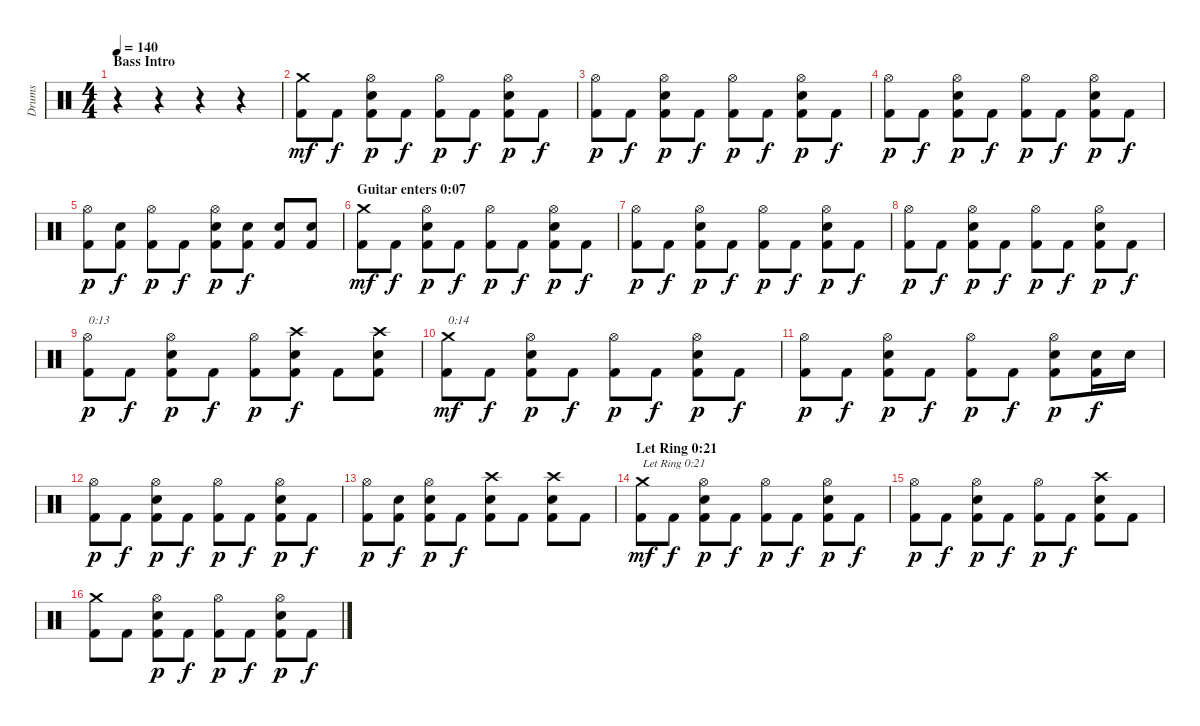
\track ("Drums" "Drums") {instrument percussion}
\staff {score}
\articulation defaults
\ts (4 4)
\section ("" "Bass Intro")
\tempo 140
\clef neutral
\ks c
r.4{dy mf} r.4 r.4 r.4 |
("Kick (hit) 2" "Crash medium (hit)").8 "Kick (hit) 2".8{dy f} ("Kick (hit) 2" "Electric Snare (hit)" "Hi-Hat (open)").8{dy p} "Kick (hit) 2".8{dy f} ("Kick (hit) 2" "Hi-Hat (open)").8{dy p} "Kick (hit) 2".8{dy f} ("Kick (hit) 2" "Electric Snare (hit)" "Hi-Hat (open)").8{dy p} "Kick (hit) 2".8{dy f} |
("Kick (hit) 2" "Hi-Hat (open)").8{dy p} "Kick (hit) 2".8{dy f} ("Kick (hit) 2" "Electric Snare (hit)" "Hi-Hat (open)").8{dy p} "Kick (hit) 2".8{dy f} ("Kick (hit) 2" "Hi-Hat (open)").8{dy p} "Kick (hit) 2".8{dy f} ("Kick (hit) 2" "Electric Snare (hit)" "Hi-Hat (open)").8{dy p} "Kick (hit) 2".8{dy f} |
("Kick (hit) 2" "Hi-Hat (open)").8{dy p} "Kick (hit) 2".8{dy f} ("Kick (hit) 2" "Electric Snare (hit)" "Hi-Hat (open)").8{dy p} "Kick (hit) 2".8{dy f} ("Kick (hit) 2" "Hi-Hat (open)").8{dy p} "Kick (hit) 2".8{dy f} ("Kick (hit) 2" "Electric Snare (hit)" "Hi-Hat (open)").8{dy p} "Kick (hit) 2".8{dy f} |
("Kick (hit) 2" "Hi-Hat (open)").8{dy p} ("Kick (hit) 2" "Electric Snare (hit)").8{dy f} ("Kick (hit) 2" "Hi-Hat (open)").8{dy p} "Kick (hit) 2".8{dy f} ("Kick (hit) 2" "Electric Snare (hit)" "Hi-Hat (open)").8{dy p} ("Kick (hit) 2" "Electric Snare (hit)").8{dy f} ("Kick (hit) 2" "Electric Snare (hit)").8 ("Kick (hit) 2" "Electric Snare (hit)").8 |
\section ("" "Guitar enters 0:07")
("Kick (hit) 2" "Crash medium (hit)").8{dy mf} "Kick (hit) 2".8{dy f} ("Kick (hit) 2" "Electric Snare (hit)" "Hi-Hat (open)").8{dy p} "Kick (hit) 2".8{dy f} ("Kick (hit) 2" "Hi-Hat (open)").8{dy p} "Kick (hit) 2".8{dy f} ("Kick (hit) 2" "Electric Snare (hit)" "Hi-Hat (open)").8{dy p} "Kick (hit) 2".8{dy f} |
("Kick (hit) 2" "Hi-Hat (open)").8{dy p} "Kick (hit) 2".8{dy f} ("Kick (hit) 2" "Electric Snare (hit)" "Hi-Hat (open)").8{dy p} "Kick (hit) 2".8{dy f} ("Kick (hit) 2" "Hi-Hat (open)").8{dy p} "Kick (hit) 2".8{dy f} ("Kick (hit) 2" "Electric Snare (hit)" "Hi-Hat (open)").8{dy p} "Kick (hit) 2".8{dy f} |
("Kick (hit) 2" "Hi-Hat (open)").8{dy p} "Kick (hit) 2".8{dy f} ("Kick (hit) 2" "Electric Snare (hit)" "Hi-Hat (open)").8{dy p} "Kick (hit) 2".8{dy f} ("Kick (hit) 2" "Hi-Hat (open)").8{dy p} "Kick (hit) 2".8{dy f} ("Kick (hit) 2" "Electric Snare (hit)" "Hi-Hat (open)").8{dy p} "Kick (hit) 2".8{dy f} |
("Kick (hit) 2" "Hi-Hat (open)").8{txt "0:13" dy p} "Kick (hit) 2".8{dy f} ("Kick (hit) 2" "Electric Snare (hit)" "Hi-Hat (open)").8{dy p} "Kick (hit) 2".8{dy f} ("Kick (hit) 2" "Hi-Hat (open)").8{dy p} ("Kick (hit) 2" "Electric Snare (hit)" "Crash high (hit)").8{dy f} "Kick (hit) 2".8 ("Kick (hit) 2" "Electric Snare (hit)" "Crash high (hit)").8 |
("Kick (hit) 2" "Crash medium (hit)").8{txt "0:14" dy mf} "Kick (hit) 2".8{dy f} ("Kick (hit) 2" "Electric Snare (hit)" "Hi-Hat (open)").8{dy p} "Kick (hit) 2".8{dy f} ("Kick (hit) 2" "Hi-Hat (open)").8{dy p} "Kick (hit) 2".8{dy f} ("Kick (hit) 2" "Electric Snare (hit)" "Hi-Hat (open)").8{dy p} "Kick (hit) 2".8{dy f} |
("Kick (hit) 2" "Hi-Hat (open)").8{dy p} "Kick (hit) 2".8{dy f} ("Kick (hit) 2" "Electric Snare (hit)" "Hi-Hat (open)").8{dy p} "Kick (hit) 2".8{dy f} ("Kick (hit) 2" "Hi-Hat (open)").8{dy p} "Kick (hit) 2".8{dy f} ("Kick (hit) 2" "Electric Snare (hit)" "Hi-Hat (open)").8{dy p} ("Kick (hit) 2" "Electric Snare (hit)").16{dy f} "Electric Snare (hit)".16 |
("Kick (hit) 2" "Hi-Hat (open)").8{dy p} "Kick (hit) 2".8{dy f} ("Kick (hit) 2" "Electric Snare (hit)" "Hi-Hat (open)").8{dy p} "Kick (hit) 2".8{dy f} ("Kick (hit) 2" "Hi-Hat (open)").8{dy p} "Kick (hit) 2".8{dy f} ("Kick (hit) 2" "Electric Snare (hit)" "Hi-Hat (open)").8{dy p} "Kick (hit) 2".8{dy f} |
("Kick (hit) 2" "Hi-Hat (open)").8{dy p} ("Kick (hit) 2" "Electric Snare (hit)").8{dy f} ("Kick (hit) 2" "Electric Snare (hit)" "Hi-Hat (open)").8{dy p} "Kick (hit) 2".8{dy f} ("Kick (hit) 2" "Electric Snare (hit)" "Crash high (hit)").8 "Kick (hit) 2".8 ("Kick (hit) 2" "Electric Snare (hit)" "Crash high (hit)").8 "Kick (hit) 2".8 |
\section ("" "Let Ring 0:21")
("Kick (hit) 2" "Crash medium (hit)").8{txt "Let Ring 0:21" dy mf} "Kick (hit) 2".8{dy f} ("Kick (hit) 2" "Electric Snare (hit)" "Hi-Hat (open)").8{dy p} "Kick (hit) 2".8{dy f} ("Kick (hit) 2" "Hi-Hat (open)").8{dy p} "Kick (hit) 2".8{dy f} ("Kick (hit) 2" "Electric Snare (hit)" "Hi-Hat (open)").8{dy p} "Kick (hit) 2".8{dy f} |
("Kick (hit) 2" "Hi-Hat (open)").8{dy p} "Kick (hit) 2".8{dy f} ("Kick (hit) 2" "Electric Snare (hit)" "Hi-Hat (open)").8{dy p} "Kick (hit) 2".8{dy f} ("Kick (hit) 2" "Hi-Hat (open)").8{dy p} "Kick (hit) 2".8{dy f} ("Kick (hit) 2" "Electric Snare (hit)" "Crash high (hit)").8 "Kick (hit) 2".8 |
("Kick (hit) 2" "Crash medium (hit)").8 "Kick (hit) 2".8 ("Kick (hit) 2" "Electric Snare (hit)" "Hi-Hat (open)").8{dy p} "Kick (hit) 2".8{dy f} ("Kick (hit) 2" "Hi-Hat (open)").8{dy p} "Kick (hit) 2".8{dy f} ("Kick (hit) 2" "Electric Snare (hit)" "Hi-Hat (open)").8{dy p} "Kick (hit) 2".8{dy f}
